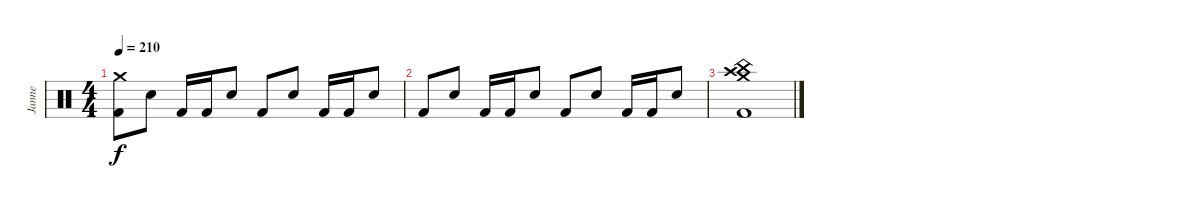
\track ("Janne" "Janne") {instrument percussion}
\staff {score}
\articulation defaults
\ts (4 4)
\tempo 210
\clef neutral
\ks c
("Crash medium (hit)" "Kick (hit) 2").8{dy f} "Electric Snare (hit)".8 "Kick (hit) 2".16 "Kick (hit) 2".16 "Electric Snare (hit)".8 "Kick (hit) 2".8 "Electric Snare (hit)".8 "Kick (hit) 2".16 "Kick (hit) 2".16 "Electric Snare (hit)".8 |
"Kick (hit) 2".8 "Electric Snare (hit)".8 "Kick (hit) 2".16 "Kick (hit) 2".16 "Electric Snare (hit)".8 "Kick (hit) 2".8 "Electric Snare (hit)".8 "Kick (hit) 2".16 "Kick (hit) 2".16 "Electric Snare (hit)".8 |
("Crash high (hit)" "Crash medium (hit)" "China (hit)" "Kick (hit) 2").1
